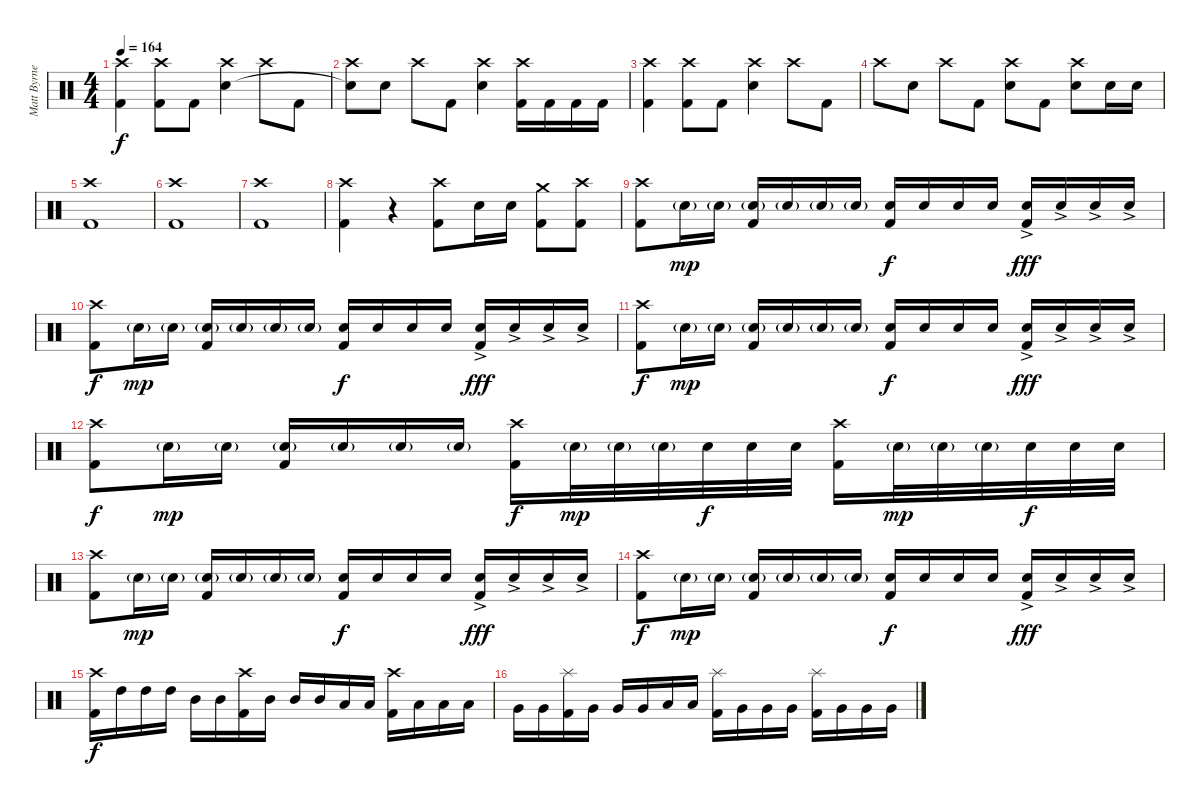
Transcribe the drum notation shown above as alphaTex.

\track ("Matt Byrne (Drums)" "Matt Byrne") {instrument percussion}
\staff {score}
\articulation defaults
\ts (4 4)
\tempo 164
\clef neutral
\ks c
("Crash high (hit)" "Kick (hit) 2").4{dy f} ("Crash high (hit)" "Kick (hit) 2").8 "Kick (hit) 2".8 ("Crash high (hit)" "Electric Snare (hit)").4 "Crash high (hit)".8 "Kick (hit) 2".8 |
("Crash high (hit)" "Snare (hit)"{t}).8 "Electric Snare (hit)".8 "Crash high (hit)".8 "Kick (hit) 2".8 ("Crash high (hit)" "Electric Snare (hit)").4 ("Crash high (hit)" "Kick (hit) 2").16 "Kick (hit) 2".16 "Kick (hit) 2".16 "Kick (hit) 2".16 |
("Crash high (hit)" "Kick (hit) 2").4 ("Crash high (hit)" "Kick (hit) 2").8 "Kick (hit) 2".8 ("Crash high (hit)" "Electric Snare (hit)").4 "Crash high (hit)".8 "Kick (hit) 2".8 |
"Crash high (hit)".8 "Electric Snare (hit)".8 "Crash high (hit)".8 "Kick (hit) 2".8 ("Crash high (hit)" "Electric Snare (hit)").8 "Kick (hit) 2".8 ("Crash high (hit)" "Electric Snare (hit)").8 "Electric Snare (hit)".16 "Electric Snare (hit)".16 |
("Kick (hit) 2" "Crash high (hit)").1 |
("Kick (hit) 2" "Crash high (hit)").1 |
("Kick (hit) 2" "Crash high (hit)").1 |
("Kick (hit) 2" "Crash high (hit)").4 r.4 ("Crash high (hit)" "Kick (hit) 2").8 "Electric Snare (hit)".16 "Electric Snare (hit)".16 ("Crash medium (hit)" "Kick (hit) 2").8 ("Crash high (hit)" "Kick (hit) 2").8 |
("Crash high (hit)" "Kick (hit) 2").8 "Electric Snare (hit)"{g}.16{dy mp} "Electric Snare (hit)"{g}.16 ("Kick (hit) 2" "Electric Snare (hit)"{g}).16 "Electric Snare (hit)"{g}.16 "Electric Snare (hit)"{g}.16 "Electric Snare (hit)"{g}.16 ("Kick (hit) 2" "Electric Snare (hit)").16{dy f} "Electric Snare (hit)".16 "Electric Snare (hit)".16 "Electric Snare (hit)".16 ("Kick (hit) 2" "Electric Snare (hit)"{ac}).16{dy fff} "Electric Snare (hit)"{ac}.16 "Electric Snare (hit)"{ac}.16 "Electric Snare (hit)"{ac}.16 |
("Crash high (hit)" "Kick (hit) 2").8{dy f} "Electric Snare (hit)"{g}.16{dy mp} "Electric Snare (hit)"{g}.16 ("Kick (hit) 2" "Electric Snare (hit)"{g}).16 "Electric Snare (hit)"{g}.16 "Electric Snare (hit)"{g}.16 "Electric Snare (hit)"{g}.16 ("Kick (hit) 2" "Electric Snare (hit)").16{dy f} "Electric Snare (hit)".16 "Electric Snare (hit)".16 "Electric Snare (hit)".16 ("Kick (hit) 2" "Electric Snare (hit)"{ac}).16{dy fff} "Electric Snare (hit)"{ac}.16 "Electric Snare (hit)"{ac}.16 "Electric Snare (hit)"{ac}.16 |
("Crash high (hit)" "Kick (hit) 2").8{dy f} "Electric Snare (hit)"{g}.16{dy mp} "Electric Snare (hit)"{g}.16 ("Kick (hit) 2" "Electric Snare (hit)"{g}).16 "Electric Snare (hit)"{g}.16 "Electric Snare (hit)"{g}.16 "Electric Snare (hit)"{g}.16 ("Kick (hit) 2" "Electric Snare (hit)").16{dy f} "Electric Snare (hit)".16 "Electric Snare (hit)".16 "Electric Snare (hit)".16 ("Kick (hit) 2" "Electric Snare (hit)"{ac}).16{dy fff} "Electric Snare (hit)"{ac}.16 "Electric Snare (hit)"{ac}.16 "Electric Snare (hit)"{ac}.16 |
("Crash high (hit)" "Kick (hit) 2").8{dy f} "Electric Snare (hit)"{g}.16{dy mp} "Electric Snare (hit)"{g}.16 ("Kick (hit) 2" "Electric Snare (hit)"{g}).16 "Electric Snare (hit)"{g}.16 "Electric Snare (hit)"{g}.16 "Electric Snare (hit)"{g}.16 ("Kick (hit) 2" "Crash high (hit)").16{dy f} "Electric Snare (hit)"{g}.32{dy mp} "Electric Snare (hit)"{g}.32 "Electric Snare (hit)"{g}.32 "Electric Snare (hit)".32{dy f} "Electric Snare (hit)".32 "Electric Snare (hit)".32 ("Crash high (hit)" "Kick (hit) 2").16 "Electric Snare (hit)"{g}.32{dy mp} "Electric Snare (hit)"{g}.32 "Electric Snare (hit)"{g}.32 "Electric Snare (hit)".32{dy f} "Electric Snare (hit)".32 "Electric Snare (hit)".32 |
("Crash high (hit)" "Kick (hit) 2").8 "Electric Snare (hit)"{g}.16{dy mp} "Electric Snare (hit)"{g}.16 ("Kick (hit) 2" "Electric Snare (hit)"{g}).16 "Electric Snare (hit)"{g}.16 "Electric Snare (hit)"{g}.16 "Electric Snare (hit)"{g}.16 ("Kick (hit) 2" "Electric Snare (hit)").16{dy f} "Electric Snare (hit)".16 "Electric Snare (hit)".16 "Electric Snare (hit)".16 ("Kick (hit) 2" "Electric Snare (hit)"{ac}).16{dy fff} "Electric Snare (hit)"{ac}.16 "Electric Snare (hit)"{ac}.16 "Electric Snare (hit)"{ac}.16 |
("Crash high (hit)" "Kick (hit) 2").8{dy f} "Electric Snare (hit)"{g}.16{dy mp} "Electric Snare (hit)"{g}.16 ("Kick (hit) 2" "Electric Snare (hit)"{g}).16 "Electric Snare (hit)"{g}.16 "Electric Snare (hit)"{g}.16 "Electric Snare (hit)"{g}.16 ("Kick (hit) 2" "Electric Snare (hit)").16{dy f} "Electric Snare (hit)".16 "Electric Snare (hit)".16 "Electric Snare (hit)".16 ("Kick (hit) 2" "Electric Snare (hit)"{ac}).16{dy fff} "Electric Snare (hit)"{ac}.16 "Electric Snare (hit)"{ac}.16 "Electric Snare (hit)"{ac}.16 |
("Crash high (hit)" "Kick (hit) 2").16{dy f} "High Tom (hit)".16 "High Tom (hit)".16 "High Tom (hit)".16 "Mid Tom (hit)".16 "Mid Tom (hit)".16 ("Crash high (hit)" "Kick (hit) 2").16 "Mid Tom (hit)".16 "Mid Tom (hit)".16 "Mid Tom (hit)".16 "Low Tom (hit)".16 "Low Tom (hit)".16 ("Crash high (hit)" "Kick (hit) 2").16 "Low Tom (hit)".16 "Low Tom (hit)".16 "Low Tom (hit)".16 |
"Very Low Tom (hit)".16 "Very Low Tom (hit)".16 ("Splash (hit)" "Kick (hit) 2").16 "Very Low Tom (hit)".16 "Very Low Tom (hit)".16 "Very Low Tom (hit)".16 "Low Floor Tom (hit)".16 "Low Floor Tom (hit)".16 ("Splash (hit)" "Kick (hit) 2").16 "Very Low Tom (hit)".16 "Very Low Tom (hit)".16 "Very Low Tom (hit)".16 ("Splash (hit)" "Kick (hit) 2").16 "Very Low Tom (hit)".16 "Very Low Tom (hit)".16 "Very Low Tom (hit)".16
